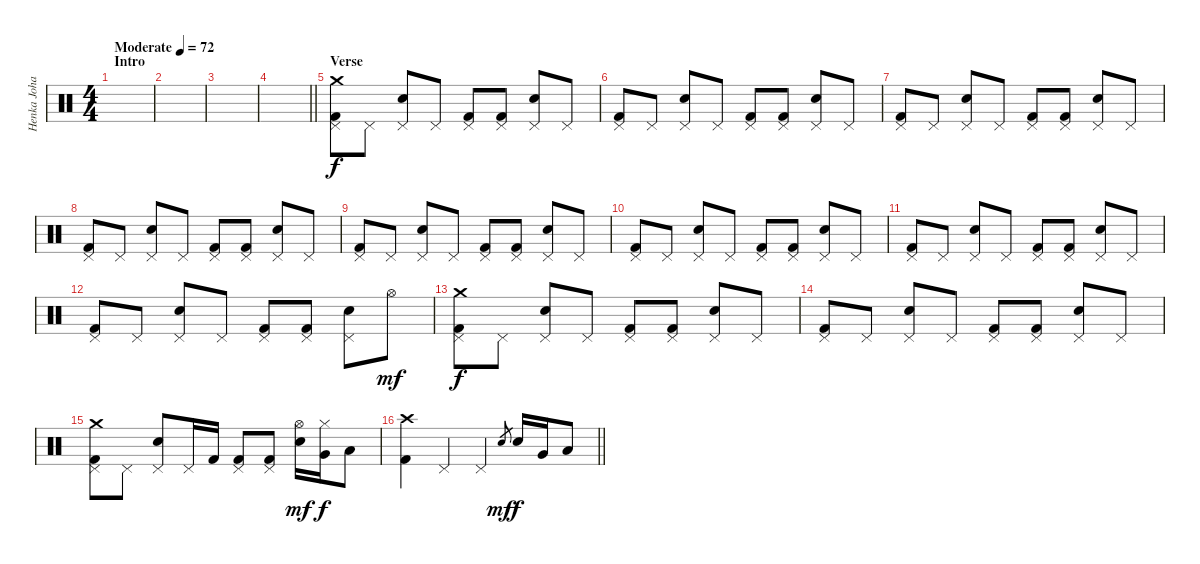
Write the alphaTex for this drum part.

\track ("Henka Johansson" "Henka Joha") {instrument percussion}
\staff {score}
\articulation defaults
\ts (4 4)
\section ("" "Intro")
\tempo (72 "Moderate")
\clef neutral
\ks c
|
|
|
\barLineRight lightlight
|
\section ("" "Verse")
("Crash medium (hit)" "Pedal Hi-Hat (hit)" "Kick (hit) 2").8 "Pedal Hi-Hat (hit)".8 ("Pedal Hi-Hat (hit)" "Electric Snare (hit)").8 "Pedal Hi-Hat (hit)".8 ("Pedal Hi-Hat (hit)" "Kick (hit) 2").8 ("Pedal Hi-Hat (hit)" "Kick (hit) 2").8 ("Pedal Hi-Hat (hit)" "Electric Snare (hit)").8 "Pedal Hi-Hat (hit)".8 |
("Pedal Hi-Hat (hit)" "Kick (hit) 2").8 "Pedal Hi-Hat (hit)".8 ("Pedal Hi-Hat (hit)" "Electric Snare (hit)").8 "Pedal Hi-Hat (hit)".8 ("Pedal Hi-Hat (hit)" "Kick (hit) 2").8 ("Pedal Hi-Hat (hit)" "Kick (hit) 2").8 ("Pedal Hi-Hat (hit)" "Electric Snare (hit)").8 "Pedal Hi-Hat (hit)".8 |
("Pedal Hi-Hat (hit)" "Kick (hit) 2").8 "Pedal Hi-Hat (hit)".8 ("Pedal Hi-Hat (hit)" "Electric Snare (hit)").8 "Pedal Hi-Hat (hit)".8 ("Pedal Hi-Hat (hit)" "Kick (hit) 2").8 ("Pedal Hi-Hat (hit)" "Kick (hit) 2").8 ("Pedal Hi-Hat (hit)" "Electric Snare (hit)").8 "Pedal Hi-Hat (hit)".8 |
("Pedal Hi-Hat (hit)" "Kick (hit) 2").8 "Pedal Hi-Hat (hit)".8 ("Pedal Hi-Hat (hit)" "Electric Snare (hit)").8 "Pedal Hi-Hat (hit)".8 ("Pedal Hi-Hat (hit)" "Kick (hit) 2").8 ("Pedal Hi-Hat (hit)" "Kick (hit) 2").8 ("Pedal Hi-Hat (hit)" "Electric Snare (hit)").8 "Pedal Hi-Hat (hit)".8 |
("Pedal Hi-Hat (hit)" "Kick (hit) 2").8 "Pedal Hi-Hat (hit)".8 ("Pedal Hi-Hat (hit)" "Electric Snare (hit)").8 "Pedal Hi-Hat (hit)".8 ("Pedal Hi-Hat (hit)" "Kick (hit) 2").8 ("Pedal Hi-Hat (hit)" "Kick (hit) 2").8 ("Pedal Hi-Hat (hit)" "Electric Snare (hit)").8 "Pedal Hi-Hat (hit)".8 |
("Pedal Hi-Hat (hit)" "Kick (hit) 2").8 "Pedal Hi-Hat (hit)".8 ("Pedal Hi-Hat (hit)" "Electric Snare (hit)").8 "Pedal Hi-Hat (hit)".8 ("Pedal Hi-Hat (hit)" "Kick (hit) 2").8 ("Pedal Hi-Hat (hit)" "Kick (hit) 2").8 ("Pedal Hi-Hat (hit)" "Electric Snare (hit)").8 "Pedal Hi-Hat (hit)".8 |
("Pedal Hi-Hat (hit)" "Kick (hit) 2").8 "Pedal Hi-Hat (hit)".8 ("Pedal Hi-Hat (hit)" "Electric Snare (hit)").8 "Pedal Hi-Hat (hit)".8 ("Pedal Hi-Hat (hit)" "Kick (hit) 2").8 ("Pedal Hi-Hat (hit)" "Kick (hit) 2").8 ("Pedal Hi-Hat (hit)" "Electric Snare (hit)").8 "Pedal Hi-Hat (hit)".8 |
("Pedal Hi-Hat (hit)" "Kick (hit) 2").8 "Pedal Hi-Hat (hit)".8 ("Pedal Hi-Hat (hit)" "Electric Snare (hit)").8 "Pedal Hi-Hat (hit)".8 ("Pedal Hi-Hat (hit)" "Kick (hit) 2").8 ("Pedal Hi-Hat (hit)" "Kick (hit) 2").8 ("Pedal Hi-Hat (hit)" "Electric Snare (hit)").8 "Hi-Hat (open)".8{dy mf} |
("Crash medium (hit)" "Pedal Hi-Hat (hit)" "Kick (hit) 2").8{dy f} "Pedal Hi-Hat (hit)".8 ("Pedal Hi-Hat (hit)" "Electric Snare (hit)").8 "Pedal Hi-Hat (hit)".8 ("Pedal Hi-Hat (hit)" "Kick (hit) 2").8 ("Pedal Hi-Hat (hit)" "Kick (hit) 2").8 ("Pedal Hi-Hat (hit)" "Electric Snare (hit)").8 "Pedal Hi-Hat (hit)".8 |
("Pedal Hi-Hat (hit)" "Kick (hit) 2").8 "Pedal Hi-Hat (hit)".8 ("Pedal Hi-Hat (hit)" "Electric Snare (hit)").8 "Pedal Hi-Hat (hit)".8 ("Pedal Hi-Hat (hit)" "Kick (hit) 2").8 ("Pedal Hi-Hat (hit)" "Kick (hit) 2").8 ("Pedal Hi-Hat (hit)" "Electric Snare (hit)").8 "Pedal Hi-Hat (hit)".8 |
("Crash medium (hit)" "Pedal Hi-Hat (hit)" "Kick (hit) 2").8 "Pedal Hi-Hat (hit)".8 ("Pedal Hi-Hat (hit)" "Electric Snare (hit)").8 "Pedal Hi-Hat (hit)".16 "Kick (hit) 2".16 ("Pedal Hi-Hat (hit)" "Kick (hit) 2").8 ("Pedal Hi-Hat (hit)" "Kick (hit) 2").8 ("Hi-Hat (open)" "Electric Snare (hit)").16{dy mf} ("Hi-Hat (closed)" "Very Low Tom (hit)").16{dy f} "Low Floor Tom (hit)".8 |
\barLineRight lightlight
("Crash high (hit)" "Kick (hit) 2").4 "Pedal Hi-Hat (hit)".4 "Pedal Hi-Hat (hit)".4 "Electric Snare (hit)".8{gr dy mf} "Electric Snare (hit)".16{dy f} "Very Low Tom (hit)".16 "Low Floor Tom (hit)".8
